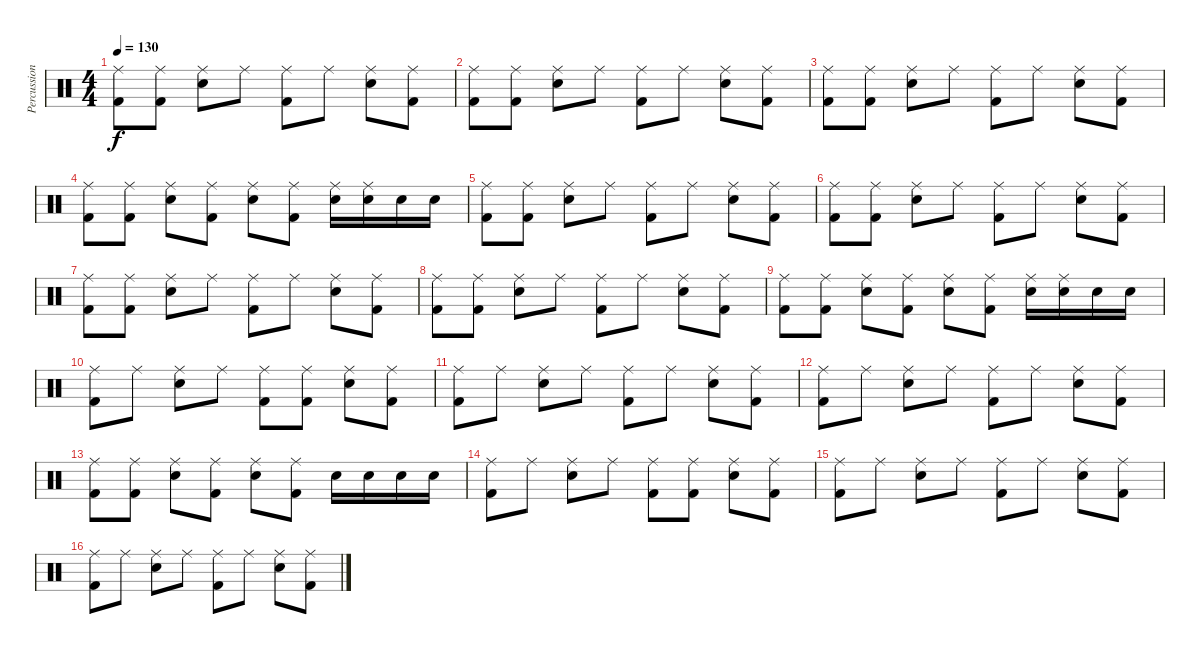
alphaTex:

\track ("Percussion" "Percussion") {instrument percussion}
\staff {score}
\articulation defaults
\ts (4 4)
\tempo 130
\clef neutral
\ks c
("Kick (hit) 2" "Ride (middle)").8{dy f} ("Kick (hit) 2" "Ride (middle)").8 ("Snare (hit) 2" "Ride (middle)").8 "Ride (middle)".8 ("Kick (hit) 2" "Ride (middle)").8 "Ride (middle)".8 ("Snare (hit) 2" "Ride (middle)").8 ("Kick (hit) 2" "Ride (middle)").8 |
("Kick (hit) 2" "Ride (middle)").8 ("Kick (hit) 2" "Ride (middle)").8 ("Snare (hit) 2" "Ride (middle)").8 "Ride (middle)".8 ("Kick (hit) 2" "Ride (middle)").8 "Ride (middle)".8 ("Snare (hit) 2" "Ride (middle)").8 ("Kick (hit) 2" "Ride (middle)").8 |
("Kick (hit) 2" "Ride (middle)").8 ("Kick (hit) 2" "Ride (middle)").8 ("Snare (hit) 2" "Ride (middle)").8 "Ride (middle)".8 ("Kick (hit) 2" "Ride (middle)").8 "Ride (middle)".8 ("Snare (hit) 2" "Ride (middle)").8 ("Kick (hit) 2" "Ride (middle)").8 |
("Kick (hit) 2" "Ride (middle)").8 ("Kick (hit) 2" "Ride (middle)").8 ("Snare (hit) 2" "Ride (middle)").8 ("Kick (hit) 2" "Ride (middle)").8 ("Snare (hit) 2" "Ride (middle)").8 ("Kick (hit) 2" "Ride (middle)").8 ("Snare (hit) 2" "Ride (middle)").16 ("Snare (hit) 2" "Ride (middle)").16 "Snare (hit) 2".16 "Snare (hit) 2".16 |
("Kick (hit) 2" "Ride (middle)").8 ("Kick (hit) 2" "Ride (middle)").8 ("Snare (hit) 2" "Ride (middle)").8 "Ride (middle)".8 ("Kick (hit) 2" "Ride (middle)").8 "Ride (middle)".8 ("Snare (hit) 2" "Ride (middle)").8 ("Kick (hit) 2" "Ride (middle)").8 |
("Kick (hit) 2" "Ride (middle)").8 ("Kick (hit) 2" "Ride (middle)").8 ("Snare (hit) 2" "Ride (middle)").8 "Ride (middle)".8 ("Kick (hit) 2" "Ride (middle)").8 "Ride (middle)".8 ("Snare (hit) 2" "Ride (middle)").8 ("Kick (hit) 2" "Ride (middle)").8 |
("Kick (hit) 2" "Ride (middle)").8 ("Kick (hit) 2" "Ride (middle)").8 ("Snare (hit) 2" "Ride (middle)").8 "Ride (middle)".8 ("Kick (hit) 2" "Ride (middle)").8 "Ride (middle)".8 ("Snare (hit) 2" "Ride (middle)").8 ("Kick (hit) 2" "Ride (middle)").8 |
("Kick (hit) 2" "Ride (middle)").8 ("Kick (hit) 2" "Ride (middle)").8 ("Snare (hit) 2" "Ride (middle)").8 "Ride (middle)".8 ("Kick (hit) 2" "Ride (middle)").8 "Ride (middle)".8 ("Snare (hit) 2" "Ride (middle)").8 ("Kick (hit) 2" "Ride (middle)").8 |
("Kick (hit) 2" "Ride (middle)").8 ("Kick (hit) 2" "Ride (middle)").8 ("Snare (hit) 2" "Ride (middle)").8 ("Kick (hit) 2" "Ride (middle)").8 ("Snare (hit) 2" "Ride (middle)").8 ("Kick (hit) 2" "Ride (middle)").8 ("Snare (hit) 2" "Ride (middle)").16 ("Snare (hit) 2" "Ride (middle)").16 "Snare (hit) 2".16 "Snare (hit) 2".16 |
("Kick (hit) 2" "Ride (middle)").8 "Ride (middle)".8 ("Snare (hit) 2" "Ride (middle)").8 "Ride (middle)".8 ("Kick (hit) 2" "Ride (middle)").8 ("Kick (hit) 2" "Ride (middle)").8 ("Snare (hit) 2" "Ride (middle)").8 ("Kick (hit) 2" "Ride (middle)").8 |
("Kick (hit) 2" "Ride (middle)").8 "Ride (middle)".8 ("Snare (hit) 2" "Ride (middle)").8 "Ride (middle)".8 ("Kick (hit) 2" "Ride (middle)").8 "Ride (middle)".8 ("Snare (hit) 2" "Ride (middle)").8 ("Kick (hit) 2" "Ride (middle)").8 |
("Kick (hit) 2" "Ride (middle)").8 "Ride (middle)".8 ("Snare (hit) 2" "Ride (middle)").8 "Ride (middle)".8 ("Kick (hit) 2" "Ride (middle)").8 "Ride (middle)".8 ("Snare (hit) 2" "Ride (middle)").8 ("Kick (hit) 2" "Ride (middle)").8 |
("Kick (hit) 2" "Ride (middle)").8 ("Kick (hit) 2" "Ride (middle)").8 ("Snare (hit) 2" "Ride (middle)").8 ("Kick (hit) 2" "Ride (middle)").8 ("Snare (hit) 2" "Ride (middle)").8 ("Kick (hit) 2" "Ride (middle)").8 "Snare (hit) 2".16 "Snare (hit) 2".16 "Snare (hit) 2".16 "Snare (hit) 2".16 |
("Kick (hit) 2" "Ride (middle)").8 "Ride (middle)".8 ("Snare (hit) 2" "Ride (middle)").8 "Ride (middle)".8 ("Kick (hit) 2" "Ride (middle)").8 ("Kick (hit) 2" "Ride (middle)").8 ("Snare (hit) 2" "Ride (middle)").8 ("Kick (hit) 2" "Ride (middle)").8 |
("Kick (hit) 2" "Ride (middle)").8 "Ride (middle)".8 ("Snare (hit) 2" "Ride (middle)").8 "Ride (middle)".8 ("Kick (hit) 2" "Ride (middle)").8 "Ride (middle)".8 ("Snare (hit) 2" "Ride (middle)").8 ("Kick (hit) 2" "Ride (middle)").8 |
("Kick (hit) 2" "Ride (middle)").8 "Ride (middle)".8 ("Snare (hit) 2" "Ride (middle)").8 "Ride (middle)".8 ("Kick (hit) 2" "Ride (middle)").8 "Ride (middle)".8 ("Snare (hit) 2" "Ride (middle)").8 ("Kick (hit) 2" "Ride (middle)").8
